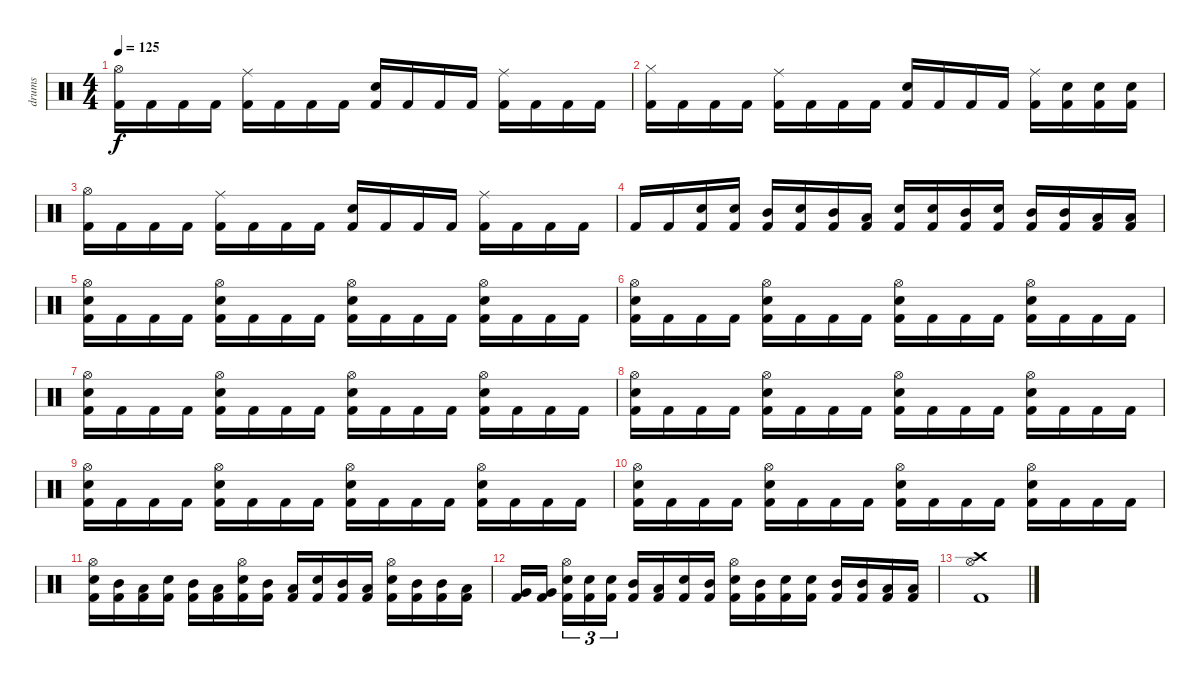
\track ("drums" "drums") {instrument percussion}
\staff {score}
\articulation defaults
\ts (4 4)
\tempo 125
\clef neutral
\ks c
("Hi-Hat (open)" "Kick (hit) 2").16{dy f} "Kick (hit) 2".16 "Kick (hit) 2".16 "Kick (hit) 2".16 ("Ride (middle)" "Kick (hit) 2").16 "Kick (hit) 2".16 "Kick (hit) 2".16 "Kick (hit) 2".16 ("Electric Snare (hit)" "Kick (hit) 2").16 "Kick (hit) 2".16 "Kick (hit) 2".16 "Kick (hit) 2".16 ("Ride (middle)" "Kick (hit) 2").16 "Kick (hit) 2".16 "Kick (hit) 2".16 "Kick (hit) 2".16 |
("Hi-Hat (closed)" "Kick (hit) 2").16 "Kick (hit) 2".16 "Kick (hit) 2".16 "Kick (hit) 2".16 ("Ride (middle)" "Kick (hit) 2").16 "Kick (hit) 2".16 "Kick (hit) 2".16 "Kick (hit) 2".16 ("Electric Snare (hit)" "Kick (hit) 2").16 "Kick (hit) 2".16 "Kick (hit) 2".16 "Kick (hit) 2".16 ("Ride (middle)" "Kick (hit) 2").16 ("Electric Snare (hit)" "Kick (hit) 2").16 ("Electric Snare (hit)" "Kick (hit) 2").16 ("Electric Snare (hit)" "Kick (hit) 2").16 |
("Hi-Hat (open)" "Kick (hit) 2").16 "Kick (hit) 2".16 "Kick (hit) 2".16 "Kick (hit) 2".16 ("Ride (middle)" "Kick (hit) 2").16 "Kick (hit) 2".16 "Kick (hit) 2".16 "Kick (hit) 2".16 ("Electric Snare (hit)" "Kick (hit) 2").16 "Kick (hit) 2".16 "Kick (hit) 2".16 "Kick (hit) 2".16 ("Ride (middle)" "Kick (hit) 2").16 "Kick (hit) 2".16 "Kick (hit) 2".16 "Kick (hit) 2".16 |
"Kick (hit) 2".16 "Kick (hit) 2".16 ("Electric Snare (hit)" "Kick (hit) 2").16 ("Electric Snare (hit)" "Kick (hit) 2").16 ("Mid Tom (hit)" "Kick (hit) 2").16 ("Electric Snare (hit)" "Kick (hit) 2").16 ("Mid Tom (hit)" "Kick (hit) 2").16 ("Low Tom (hit)" "Kick (hit) 2").16 ("Electric Snare (hit)" "Kick (hit) 2").16 ("Electric Snare (hit)" "Kick (hit) 2").16 ("Mid Tom (hit)" "Kick (hit) 2").16 ("Electric Snare (hit)" "Kick (hit) 2").16 ("Mid Tom (hit)" "Kick (hit) 2").16 ("Mid Tom (hit)" "Kick (hit) 2").16 ("Low Tom (hit)" "Kick (hit) 2").16 ("Low Floor Tom (hit)" "Kick (hit) 2").16 |
("Electric Snare (hit)" "Hi-Hat (open)" "Kick (hit) 2").16 "Kick (hit) 2".16 "Kick (hit) 2".16 "Kick (hit) 2".16 ("Electric Snare (hit)" "Hi-Hat (open)" "Kick (hit) 2").16 "Kick (hit) 2".16 "Kick (hit) 2".16 "Kick (hit) 2".16 ("Electric Snare (hit)" "Hi-Hat (open)" "Kick (hit) 2").16 "Kick (hit) 2".16 "Kick (hit) 2".16 "Kick (hit) 2".16 ("Electric Snare (hit)" "Hi-Hat (open)" "Kick (hit) 2").16 "Kick (hit) 2".16 "Kick (hit) 2".16 "Kick (hit) 2".16 |
("Electric Snare (hit)" "Hi-Hat (open)" "Kick (hit) 2").16 "Kick (hit) 2".16 "Kick (hit) 2".16 "Kick (hit) 2".16 ("Electric Snare (hit)" "Hi-Hat (open)" "Kick (hit) 2").16 "Kick (hit) 2".16 "Kick (hit) 2".16 "Kick (hit) 2".16 ("Electric Snare (hit)" "Hi-Hat (open)" "Kick (hit) 2").16 "Kick (hit) 2".16 "Kick (hit) 2".16 "Kick (hit) 2".16 ("Electric Snare (hit)" "Hi-Hat (open)" "Kick (hit) 2").16 "Kick (hit) 2".16 "Kick (hit) 2".16 "Kick (hit) 2".16 |
("Electric Snare (hit)" "Hi-Hat (open)" "Kick (hit) 2").16 "Kick (hit) 2".16 "Kick (hit) 2".16 "Kick (hit) 2".16 ("Electric Snare (hit)" "Hi-Hat (open)" "Kick (hit) 2").16 "Kick (hit) 2".16 "Kick (hit) 2".16 "Kick (hit) 2".16 ("Electric Snare (hit)" "Hi-Hat (open)" "Kick (hit) 2").16 "Kick (hit) 2".16 "Kick (hit) 2".16 "Kick (hit) 2".16 ("Electric Snare (hit)" "Hi-Hat (open)" "Kick (hit) 2").16 "Kick (hit) 2".16 "Kick (hit) 2".16 "Kick (hit) 2".16 |
("Electric Snare (hit)" "Hi-Hat (open)" "Kick (hit) 2").16 "Kick (hit) 2".16 "Kick (hit) 2".16 "Kick (hit) 2".16 ("Electric Snare (hit)" "Hi-Hat (open)" "Kick (hit) 2").16 "Kick (hit) 2".16 "Kick (hit) 2".16 "Kick (hit) 2".16 ("Electric Snare (hit)" "Hi-Hat (open)" "Kick (hit) 2").16 "Kick (hit) 2".16 "Kick (hit) 2".16 "Kick (hit) 2".16 ("Electric Snare (hit)" "Hi-Hat (open)" "Kick (hit) 2").16 "Kick (hit) 2".16 "Kick (hit) 2".16 "Kick (hit) 2".16 |
("Electric Snare (hit)" "Hi-Hat (open)" "Kick (hit) 2").16 "Kick (hit) 2".16 "Kick (hit) 2".16 "Kick (hit) 2".16 ("Electric Snare (hit)" "Hi-Hat (open)" "Kick (hit) 2").16 "Kick (hit) 2".16 "Kick (hit) 2".16 "Kick (hit) 2".16 ("Electric Snare (hit)" "Hi-Hat (open)" "Kick (hit) 2").16 "Kick (hit) 2".16 "Kick (hit) 2".16 "Kick (hit) 2".16 ("Electric Snare (hit)" "Hi-Hat (open)" "Kick (hit) 2").16 "Kick (hit) 2".16 "Kick (hit) 2".16 "Kick (hit) 2".16 |
("Electric Snare (hit)" "Hi-Hat (open)" "Kick (hit) 2").16 "Kick (hit) 2".16 "Kick (hit) 2".16 "Kick (hit) 2".16 ("Electric Snare (hit)" "Hi-Hat (open)" "Kick (hit) 2").16 "Kick (hit) 2".16 "Kick (hit) 2".16 "Kick (hit) 2".16 ("Electric Snare (hit)" "Hi-Hat (open)" "Kick (hit) 2").16 "Kick (hit) 2".16 "Kick (hit) 2".16 "Kick (hit) 2".16 ("Electric Snare (hit)" "Hi-Hat (open)" "Kick (hit) 2").16 "Kick (hit) 2".16 "Kick (hit) 2".16 "Kick (hit) 2".16 |
("Electric Snare (hit)" "Hi-Hat (open)" "Kick (hit) 2").16 ("Mid Tom (hit)" "Kick (hit) 2").16 ("Low Tom (hit)" "Kick (hit) 2").16 ("Electric Snare (hit)" "Kick (hit) 2").16 ("Mid Tom (hit)" "Kick (hit) 2").16 ("Low Tom (hit)" "Kick (hit) 2").16 ("Electric Snare (hit)" "Hi-Hat (open)" "Kick (hit) 2").16 ("Mid Tom (hit)" "Kick (hit) 2").16 ("Low Tom (hit)" "Kick (hit) 2").16 ("Electric Snare (hit)" "Kick (hit) 2").16 ("Mid Tom (hit)" "Kick (hit) 2").16 ("Low Tom (hit)" "Kick (hit) 2").16 ("Electric Snare (hit)" "Hi-Hat (open)" "Kick (hit) 2").16 ("Mid Tom (hit)" "Kick (hit) 2").16 ("Mid Tom (hit)" "Kick (hit) 2").16 ("Low Tom (hit)" "Kick (hit) 2").16 |
("Very Low Tom (hit)" "Kick (hit) 2").16 ("Very Low Tom (hit)" "Kick (hit) 2").16{beam splitsecondary} ("Electric Snare (hit)" "Hi-Hat (open)" "Kick (hit) 2").16{tu (3 2)} ("Electric Snare (hit)" "Kick (hit) 2").16{tu (3 2)} ("Electric Snare (hit)" "Kick (hit) 2").16{tu (3 2)} ("Mid Tom (hit)" "Kick (hit) 2").16 ("Low Tom (hit)" "Kick (hit) 2").16 ("Electric Snare (hit)" "Kick (hit) 2").16 ("Mid Tom (hit)" "Kick (hit) 2").16 ("Electric Snare (hit)" "Hi-Hat (open)" "Kick (hit) 2").16 ("Mid Tom (hit)" "Kick (hit) 2").16 ("Electric Snare (hit)" "Kick (hit) 2").16 ("Electric Snare (hit)" "Kick (hit) 2").16 ("Mid Tom (hit)" "Kick (hit) 2").16 ("Mid Tom (hit)" "Kick (hit) 2").16 ("Low Tom (hit)" "Kick (hit) 2").16 ("Low Tom (hit)" "Kick (hit) 2").16 |
("Crash high (hit)" "Hi-Hat (open)" "Kick (hit) 2").1
